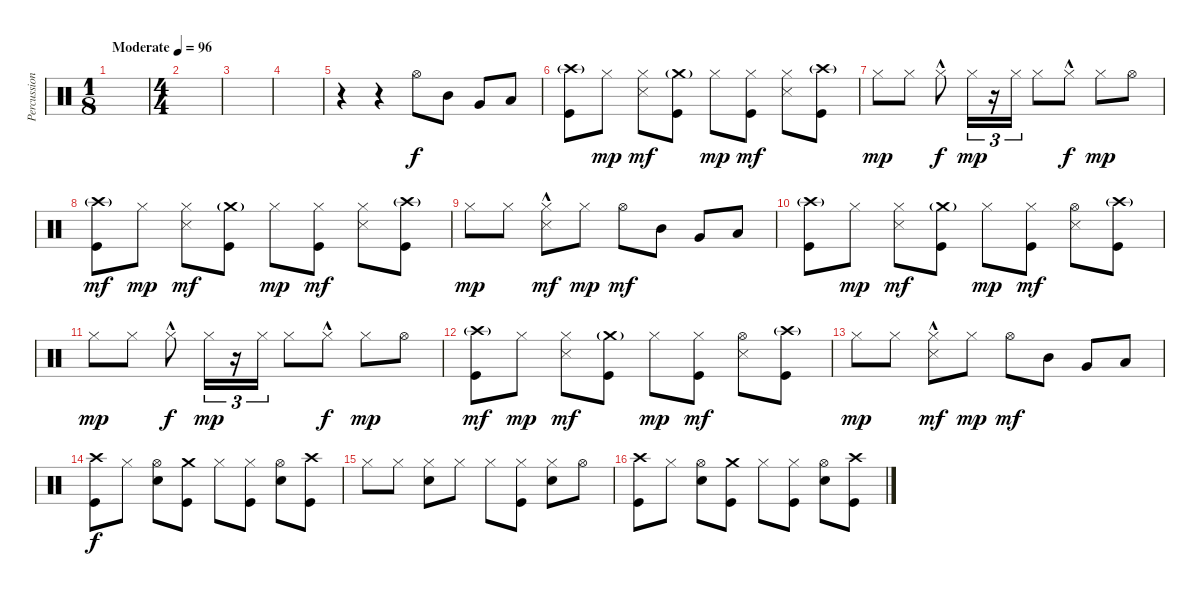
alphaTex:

\track ("Percussion" "Percussion") {instrument percussion}
\staff {score}
\articulation defaults
\ts (1 8)
\tempo (96 "Moderate")
\clef neutral
\ks c
|
\ts (4 4)
|
|
|
r.4 r.4 "Hi-Hat (open)".8 "Mid Tom (hit)".8 "Very Low Tom (hit)".8 "Low Floor Tom (hit)".8 |
("Crash high (hit)"{g} "Kick (hit)").8 "Hi-Hat (closed)".8{dy mp} ("Hi-Hat (closed)" "Snare (side stick) 3").8{dy mf} ("Crash medium (hit)"{g} "Kick (hit)").8 "Hi-Hat (closed)".8{dy mp} ("Hi-Hat (closed)" "Kick (hit)").8{dy mf} ("Hi-Hat (closed)" "Snare (side stick) 3").8 ("Crash high (hit)"{g} "Kick (hit)").8 |
"Hi-Hat (closed)".8{dy mp} "Hi-Hat (closed)".8 "Hi-Hat (closed)"{hac}.8{dy f} "Hi-Hat (closed)".16{tu (3 2) dy mp} r.16{tu (3 2)} "Hi-Hat (closed)".16{tu (3 2)} "Hi-Hat (closed)".8 "Hi-Hat (closed)"{hac}.8{dy f} "Hi-Hat (closed)".8{dy mp} "Hi-Hat (open)".8 |
("Crash high (hit)"{g} "Kick (hit)").8{dy mf} "Hi-Hat (closed)".8{dy mp} ("Hi-Hat (closed)" "Snare (side stick) 3").8{dy mf} ("Crash medium (hit)"{g} "Kick (hit)").8 "Hi-Hat (closed)".8{dy mp} ("Hi-Hat (closed)" "Kick (hit)").8{dy mf} ("Hi-Hat (closed)" "Snare (side stick) 3").8 ("Crash high (hit)"{g} "Kick (hit)").8 |
"Hi-Hat (closed)".8{dy mp} "Hi-Hat (closed)".8 ("Hi-Hat (closed)"{hac} "Snare (side stick) 3").8{dy mf} "Hi-Hat (closed)".8{dy mp} "Hi-Hat (open)".8{dy mf} "Mid Tom (hit)".8 "Very Low Tom (hit)".8 "Low Floor Tom (hit)".8 |
("Crash high (hit)"{g} "Kick (hit)").8 "Hi-Hat (closed)".8{dy mp} ("Hi-Hat (closed)" "Snare (side stick) 3").8{dy mf} ("Crash medium (hit)"{g} "Kick (hit)").8 "Hi-Hat (closed)".8{dy mp} ("Hi-Hat (closed)" "Kick (hit)").8{dy mf} ("Hi-Hat (open)" "Snare (side stick) 3").8 ("Crash high (hit)"{g} "Kick (hit)").8 |
"Hi-Hat (closed)".8{dy mp} "Hi-Hat (closed)".8 "Hi-Hat (closed)"{hac}.8{dy f} "Hi-Hat (closed)".16{tu (3 2) dy mp} r.16{tu (3 2)} "Hi-Hat (closed)".16{tu (3 2)} "Hi-Hat (closed)".8 "Hi-Hat (closed)"{hac}.8{dy f} "Hi-Hat (closed)".8{dy mp} "Hi-Hat (open)".8 |
("Crash high (hit)"{g} "Kick (hit)").8{dy mf} "Hi-Hat (closed)".8{dy mp} ("Hi-Hat (closed)" "Snare (side stick) 3").8{dy mf} ("Crash medium (hit)"{g} "Kick (hit)").8 "Hi-Hat (closed)".8{dy mp} ("Hi-Hat (closed)" "Kick (hit)").8{dy mf} ("Hi-Hat (open)" "Snare (side stick) 3").8 ("Crash high (hit)"{g} "Kick (hit)").8 |
"Hi-Hat (closed)".8{dy mp} "Hi-Hat (closed)".8 ("Hi-Hat (closed)"{hac} "Snare (side stick) 3").8{dy mf} "Hi-Hat (closed)".8{dy mp} "Hi-Hat (open)".8{dy mf} "Mid Tom (hit)".8 "Very Low Tom (hit)".8 "Low Floor Tom (hit)".8 |
("Crash high (hit)" "Kick (hit)").8{dy f} "Hi-Hat (closed)".8 ("Hi-Hat (open)" "Snare (hit) 2").8 ("Crash medium (hit)" "Kick (hit)").8 "Hi-Hat (closed)".8 ("Hi-Hat (closed)" "Kick (hit)").8 ("Hi-Hat (open)" "Snare (hit) 2").8 ("Crash high (hit)" "Kick (hit)").8 |
"Hi-Hat (closed)".8 "Hi-Hat (closed)".8 ("Hi-Hat (closed)" "Snare (hit) 2").8 "Hi-Hat (closed)".8 "Hi-Hat (closed)".8 ("Hi-Hat (closed)" "Kick (hit)").8 ("Hi-Hat (closed)" "Snare (hit) 2").8 "Hi-Hat (open)".8 |
("Crash high (hit)" "Kick (hit)").8 "Hi-Hat (closed)".8 ("Hi-Hat (open)" "Snare (hit) 2").8 ("Crash medium (hit)" "Kick (hit)").8 "Hi-Hat (closed)".8 ("Hi-Hat (closed)" "Kick (hit)").8 ("Hi-Hat (open)" "Snare (hit) 2").8 ("Crash high (hit)" "Kick (hit)").8
